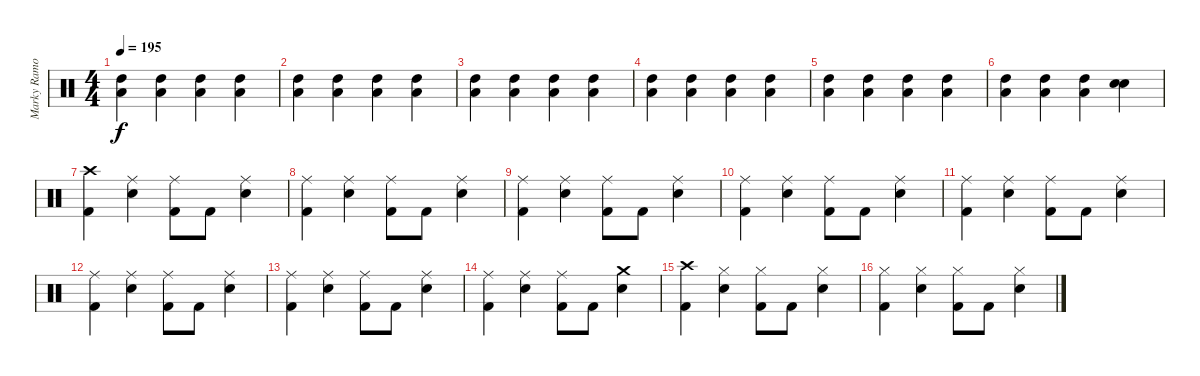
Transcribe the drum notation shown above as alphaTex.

\track ("Marky Ramone" "Marky Ramo") {instrument percussion}
\staff {score}
\articulation defaults
\ts (4 4)
\tempo 195
\clef neutral
\ks c
("Low Floor Tom (hit)" "High Tom (hit)").4{dy f} ("Low Floor Tom (hit)" "High Tom (hit)").4 ("Low Floor Tom (hit)" "High Tom (hit)").4 ("Low Floor Tom (hit)" "High Tom (hit)").4 |
("Low Floor Tom (hit)" "High Tom (hit)").4 ("Low Floor Tom (hit)" "High Tom (hit)").4 ("Low Floor Tom (hit)" "High Tom (hit)").4 ("Low Floor Tom (hit)" "High Tom (hit)").4 |
("Low Floor Tom (hit)" "High Tom (hit)").4 ("Low Floor Tom (hit)" "High Tom (hit)").4 ("Low Floor Tom (hit)" "High Tom (hit)").4 ("Low Floor Tom (hit)" "High Tom (hit)").4 |
("Low Floor Tom (hit)" "High Tom (hit)").4 ("Low Floor Tom (hit)" "High Tom (hit)").4 ("Low Floor Tom (hit)" "High Tom (hit)").4 ("Low Floor Tom (hit)" "High Tom (hit)").4 |
("Low Floor Tom (hit)" "High Tom (hit)").4 ("Low Floor Tom (hit)" "High Tom (hit)").4 ("Low Floor Tom (hit)" "High Tom (hit)").4 ("Low Floor Tom (hit)" "High Tom (hit)").4 |
("Low Floor Tom (hit)" "High Tom (hit)").4 ("Low Floor Tom (hit)" "High Tom (hit)").4 ("Low Floor Tom (hit)" "High Tom (hit)").4 ("Snare (hit) 2" "Snare (hit) 2").4 |
("Crash high (hit)" "Kick (hit) 2").4 ("Ride (middle)" "Snare (hit) 2").4 ("Ride (middle)" "Kick (hit) 2").8 "Kick (hit) 2".8 ("Ride (middle)" "Snare (hit) 2").4 |
("Ride (middle)" "Kick (hit) 2").4 ("Ride (middle)" "Snare (hit) 2").4 ("Ride (middle)" "Kick (hit) 2").8 "Kick (hit) 2".8 ("Ride (middle)" "Snare (hit) 2").4 |
("Ride (middle)" "Kick (hit) 2").4 ("Ride (middle)" "Snare (hit) 2").4 ("Ride (middle)" "Kick (hit) 2").8 "Kick (hit) 2".8 ("Ride (middle)" "Snare (hit) 2").4 |
("Ride (middle)" "Kick (hit) 2").4 ("Ride (middle)" "Snare (hit) 2").4 ("Ride (middle)" "Kick (hit) 2").8 "Kick (hit) 2".8 ("Ride (middle)" "Snare (hit) 2").4 |
("Ride (middle)" "Kick (hit) 2").4 ("Ride (middle)" "Snare (hit) 2").4 ("Ride (middle)" "Kick (hit) 2").8 "Kick (hit) 2".8 ("Ride (middle)" "Snare (hit) 2").4 |
("Ride (middle)" "Kick (hit) 2").4 ("Ride (middle)" "Snare (hit) 2").4 ("Ride (middle)" "Kick (hit) 2").8 "Kick (hit) 2".8 ("Ride (middle)" "Snare (hit) 2").4 |
("Ride (middle)" "Kick (hit) 2").4 ("Ride (middle)" "Snare (hit) 2").4 ("Ride (middle)" "Kick (hit) 2").8 "Kick (hit) 2".8 ("Ride (middle)" "Snare (hit) 2").4 |
("Ride (middle)" "Kick (hit) 2").4 ("Ride (middle)" "Snare (hit) 2").4 ("Ride (middle)" "Kick (hit) 2").8 "Kick (hit) 2".8 ("Crash medium (hit)" "Snare (hit) 2").4 |
("Crash high (hit)" "Kick (hit) 2").4 ("Hi-Hat (closed)" "Snare (hit) 2").4 ("Hi-Hat (closed)" "Kick (hit) 2").8 "Kick (hit) 2".8 ("Hi-Hat (closed)" "Snare (hit) 2").4 |
("Hi-Hat (closed)" "Kick (hit) 2").4 ("Hi-Hat (closed)" "Snare (hit) 2").4 ("Hi-Hat (closed)" "Kick (hit) 2").8 "Kick (hit) 2".8 ("Hi-Hat (closed)" "Snare (hit) 2").4
